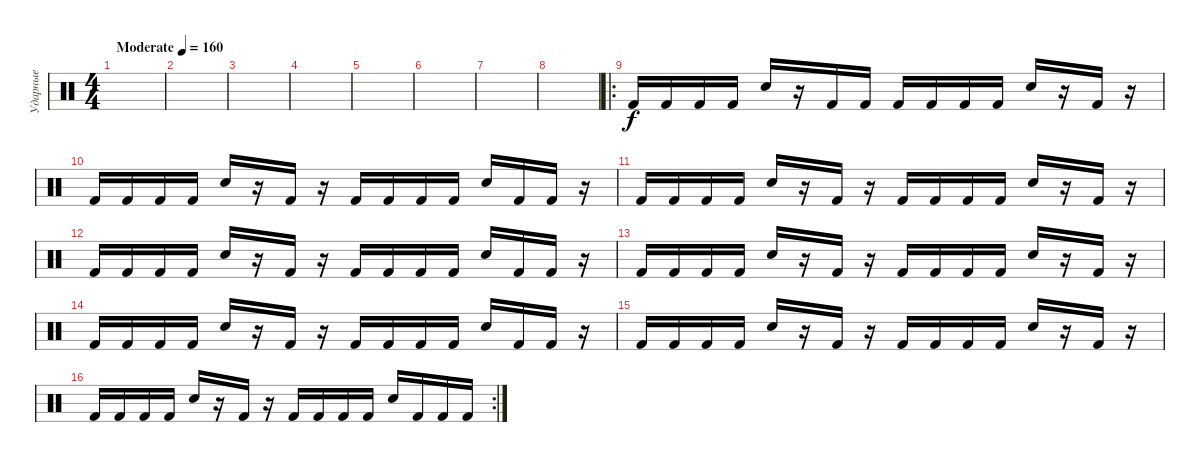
\track ("Ударные" "Ударные") {instrument percussion}
\staff {score}
\articulation defaults
\ts (4 4)
\tempo (160 "Moderate")
\clef neutral
\ks c
|
|
|
|
|
|
|
|
\ro "Kick (hit) 2".16 "Kick (hit) 2".16 "Kick (hit) 2".16 "Kick (hit) 2".16 "Electric Snare (hit)".16
r.16 "Kick (hit) 2".16 "Kick (hit) 2".16 "Kick (hit) 2".16 "Kick (hit) 2".16 "Kick (hit) 2".16 "Kick (hit) 2".16 "Electric Snare (hit)".16 r.16 "Kick (hit) 2".16 r.16 |
"Kick (hit) 2".16 "Kick (hit) 2".16 "Kick (hit) 2".16 "Kick (hit) 2".16 "Electric Snare (hit)".16 r.16 "Kick (hit) 2".16 r.16 "Kick (hit) 2".16 "Kick (hit) 2".16 "Kick (hit) 2".16 "Kick (hit) 2".16 "Electric Snare (hit)".16 "Kick (hit) 2".16 "Kick (hit) 2".16 r.16 |
"Kick (hit) 2".16 "Kick (hit) 2".16 "Kick (hit) 2".16 "Kick (hit) 2".16 "Electric Snare (hit)".16 r.16 "Kick (hit) 2".16 r.16 "Kick (hit) 2".16 "Kick (hit) 2".16 "Kick (hit) 2".16 "Kick (hit) 2".16 "Electric Snare (hit)".16 r.16 "Kick (hit) 2".16 r.16 |
"Kick (hit) 2".16 "Kick (hit) 2".16 "Kick (hit) 2".16 "Kick (hit) 2".16 "Electric Snare (hit)".16 r.16 "Kick (hit) 2".16 r.16 "Kick (hit) 2".16 "Kick (hit) 2".16 "Kick (hit) 2".16 "Kick (hit) 2".16 "Electric Snare (hit)".16 "Kick (hit) 2".16 "Kick (hit) 2".16 r.16 |
"Kick (hit) 2".16 "Kick (hit) 2".16 "Kick (hit) 2".16 "Kick (hit) 2".16 "Electric Snare (hit)".16 r.16 "Kick (hit) 2".16 r.16 "Kick (hit) 2".16 "Kick (hit) 2".16 "Kick (hit) 2".16 "Kick (hit) 2".16 "Electric Snare (hit)".16 r.16 "Kick (hit) 2".16 r.16 |
"Kick (hit) 2".16 "Kick (hit) 2".16 "Kick (hit) 2".16 "Kick (hit) 2".16 "Electric Snare (hit)".16 r.16 "Kick (hit) 2".16 r.16 "Kick (hit) 2".16 "Kick (hit) 2".16 "Kick (hit) 2".16 "Kick (hit) 2".16 "Electric Snare (hit)".16 "Kick (hit) 2".16 "Kick (hit) 2".16 r.16 |
"Kick (hit) 2".16 "Kick (hit) 2".16 "Kick (hit) 2".16 "Kick (hit) 2".16 "Electric Snare (hit)".16 r.16 "Kick (hit) 2".16 r.16 "Kick (hit) 2".16 "Kick (hit) 2".16 "Kick (hit) 2".16 "Kick (hit) 2".16 "Electric Snare (hit)".16 r.16 "Kick (hit) 2".16 r.16 |
\rc 2 "Kick (hit) 2".16 "Kick (hit) 2".16 "Kick (hit) 2".16 "Kick (hit) 2".16 "Electric Snare (hit)".16
r.16 "Kick (hit) 2".16 r.16 "Kick (hit) 2".16 "Kick (hit) 2".16 "Kick (hit) 2".16 "Kick (hit) 2".16 "Electric Snare (hit)".16 "Kick (hit) 2".16 "Kick (hit) 2".16 "Kick (hit) 2".16
